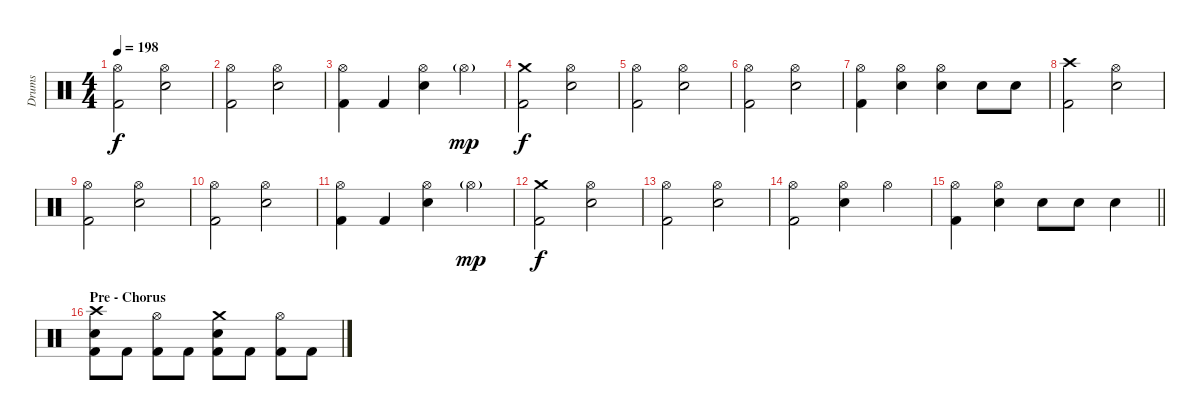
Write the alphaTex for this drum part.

\track ("Drums" "Drums") {instrument percussion}
\staff {score}
\articulation defaults
\ts (4 4)
\tempo 198
\clef neutral
\ks c
("Hi-Hat (open)" "Kick (hit) 2").2{dy f} ("Hi-Hat (open)" "Electric Snare (hit)").2 |
("Hi-Hat (open)" "Kick (hit) 2").2 ("Hi-Hat (open)" "Electric Snare (hit)").2 |
("Hi-Hat (open)" "Kick (hit) 2").4 "Kick (hit) 2".4 ("Hi-Hat (open)" "Electric Snare (hit)").4 "Hi-Hat (open)"{g}.4{dy mp} |
("Crash medium (hit)" "Kick (hit) 2").2{dy f} ("Hi-Hat (open)" "Electric Snare (hit)").2 |
("Hi-Hat (open)" "Kick (hit) 2").2 ("Hi-Hat (open)" "Electric Snare (hit)").2 |
("Hi-Hat (open)" "Kick (hit) 2").2 ("Hi-Hat (open)" "Electric Snare (hit)").2 |
("Hi-Hat (open)" "Kick (hit) 2").4 ("Hi-Hat (open)" "Electric Snare (hit)").4 ("Hi-Hat (open)" "Electric Snare (hit)").4 "Electric Snare (hit)".8 "Electric Snare (hit)".8 |
("Crash high (hit)" "Kick (hit) 2").2 ("Hi-Hat (open)" "Electric Snare (hit)").2 |
("Hi-Hat (open)" "Kick (hit) 2").2 ("Hi-Hat (open)" "Electric Snare (hit)").2 |
("Hi-Hat (open)" "Kick (hit) 2").2 ("Hi-Hat (open)" "Electric Snare (hit)").2 |
("Hi-Hat (open)" "Kick (hit) 2").4 "Kick (hit) 2".4 ("Hi-Hat (open)" "Electric Snare (hit)").4 "Hi-Hat (open)"{g}.4{dy mp} |
("Crash medium (hit)" "Kick (hit) 2").2{dy f} ("Hi-Hat (open)" "Electric Snare (hit)").2 |
("Hi-Hat (open)" "Kick (hit) 2").2 ("Hi-Hat (open)" "Electric Snare (hit)").2 |
("Hi-Hat (open)" "Kick (hit) 2").2 ("Hi-Hat (open)" "Electric Snare (hit)").4 "Hi-Hat (open)".4 |
\barLineRight lightlight
("Hi-Hat (open)" "Kick (hit) 2").4 ("Hi-Hat (open)" "Electric Snare (hit)").4 "Electric Snare (hit)".8 "Electric Snare (hit)".8 "Electric Snare (hit)".4 |
\section ("" "Pre - Chorus")
("Crash high (hit)" "Electric Snare (hit)" "Kick (hit) 2").8 "Kick (hit) 2".8 ("Hi-Hat (open)" "Kick (hit) 2").8 "Kick (hit) 2".8 ("Crash medium (hit)" "Electric Snare (hit)" "Kick (hit) 2").8 "Kick (hit) 2".8 ("Hi-Hat (open)" "Kick (hit) 2").8 "Kick (hit) 2".8
